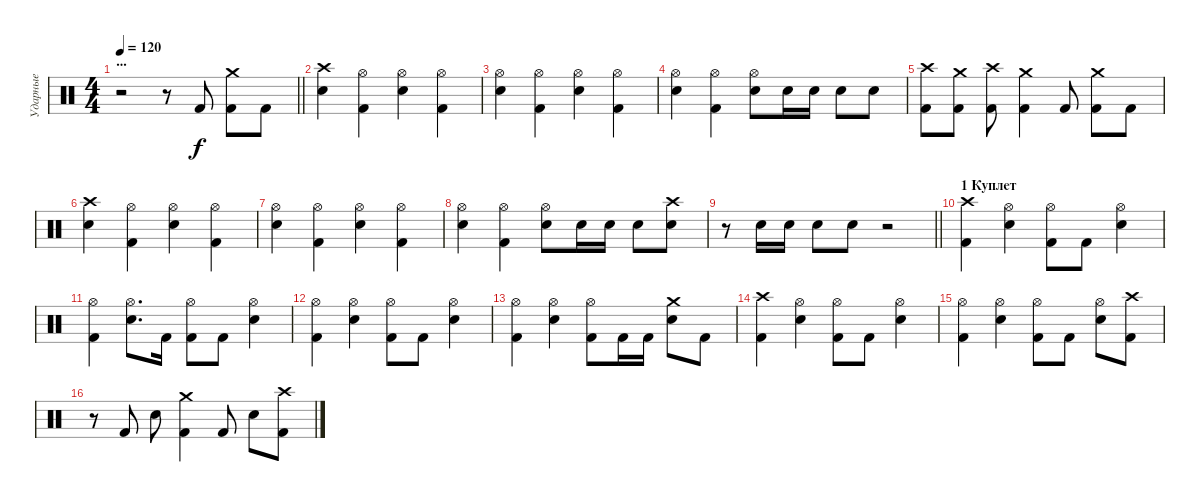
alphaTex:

\track ("Ударные" "Ударные") {instrument percussion}
\staff {score}
\articulation defaults
\ts (4 4)
\section ("" "...")
\tempo 120
\clef neutral
\barLineRight lightlight
\ks c
r.2{dy f} r.8 "Kick (hit) 2".8 ("Kick (hit) 2" "Crash medium (hit)").8 "Kick (hit) 2".8 |
\section ("" "")
("Snare (hit) 2" "Crash high (hit)").4 ("Kick (hit) 2" "Hi-Hat (open)").4 ("Snare (hit) 2" "Hi-Hat (open)").4 ("Kick (hit) 2" "Hi-Hat (open)").4 |
("Snare (hit) 2" "Hi-Hat (open)").4 ("Kick (hit) 2" "Hi-Hat (open)").4 ("Snare (hit) 2" "Hi-Hat (open)").4 ("Kick (hit) 2" "Hi-Hat (open)").4 |
("Snare (hit) 2" "Hi-Hat (open)").4 ("Kick (hit) 2" "Hi-Hat (open)").4 ("Snare (hit) 2" "Hi-Hat (open)").8 "Snare (hit) 2".16 "Snare (hit) 2".16 "Snare (hit) 2".8 "Snare (hit) 2".8 |
("Kick (hit) 2" "Crash high (hit)").8 ("Kick (hit) 2" "Crash medium (hit)").8 ("Kick (hit) 2" "Crash high (hit)").8 ("Kick (hit) 2" "Crash medium (hit)").4 "Kick (hit) 2".8 ("Kick (hit) 2" "Crash medium (hit)").8 "Kick (hit) 2".8 |
("Snare (hit) 2" "Crash high (hit)").4 ("Kick (hit) 2" "Hi-Hat (open)").4 ("Snare (hit) 2" "Hi-Hat (open)").4 ("Kick (hit) 2" "Hi-Hat (open)").4 |
("Snare (hit) 2" "Hi-Hat (open)").4 ("Kick (hit) 2" "Hi-Hat (open)").4 ("Snare (hit) 2" "Hi-Hat (open)").4 ("Kick (hit) 2" "Hi-Hat (open)").4 |
("Snare (hit) 2" "Hi-Hat (open)").4 ("Kick (hit) 2" "Hi-Hat (open)").4 ("Snare (hit) 2" "Hi-Hat (open)").8 "Snare (hit) 2".16 "Snare (hit) 2".16 "Snare (hit) 2".8 ("Snare (hit) 2" "Crash high (hit)").8 |
\barLineRight lightlight
r.8 "Snare (hit) 2".16 "Snare (hit) 2".16 "Snare (hit) 2".8 "Snare (hit) 2".8 r.2 |
\section ("" "1 Куплет")
("Kick (hit) 2" "Crash high (hit)").4 ("Snare (hit) 2" "Hi-Hat (open)").4 ("Kick (hit) 2" "Hi-Hat (open)").8 "Kick (hit) 2".8 ("Snare (hit) 2" "Hi-Hat (open)").4 |
("Kick (hit) 2" "Hi-Hat (open)").4 ("Snare (hit) 2" "Hi-Hat (open)").8{d} "Kick (hit) 2".16 ("Kick (hit) 2" "Hi-Hat (open)").8 "Kick (hit) 2".8 ("Snare (hit) 2" "Hi-Hat (open)").4 |
("Kick (hit) 2" "Hi-Hat (open)").4 ("Snare (hit) 2" "Hi-Hat (open)").4 ("Kick (hit) 2" "Hi-Hat (open)").8 "Kick (hit) 2".8 ("Snare (hit) 2" "Hi-Hat (open)").4 |
("Kick (hit) 2" "Hi-Hat (open)").4 ("Snare (hit) 2" "Hi-Hat (open)").4 ("Kick (hit) 2" "Hi-Hat (open)").8 "Kick (hit) 2".16 "Kick (hit) 2".16 ("Snare (hit) 2" "Crash medium (hit)").8 "Kick (hit) 2".8 |
("Kick (hit) 2" "Crash high (hit)").4 ("Snare (hit) 2" "Hi-Hat (open)").4 ("Kick (hit) 2" "Hi-Hat (open)").8 "Kick (hit) 2".8 ("Snare (hit) 2" "Hi-Hat (open)").4 |
("Kick (hit) 2" "Hi-Hat (open)").4 ("Snare (hit) 2" "Hi-Hat (open)").4 ("Kick (hit) 2" "Hi-Hat (open)").8 "Kick (hit) 2".8 ("Snare (hit) 2" "Hi-Hat (open)").8 ("Kick (hit) 2" "Crash high (hit)").8 |
r.8 "Kick (hit) 2".8 "Snare (hit) 2".8 ("Kick (hit) 2" "Crash medium (hit)").4 "Kick (hit) 2".8 "Snare (hit) 2".8 ("Kick (hit) 2" "Crash high (hit)").8
